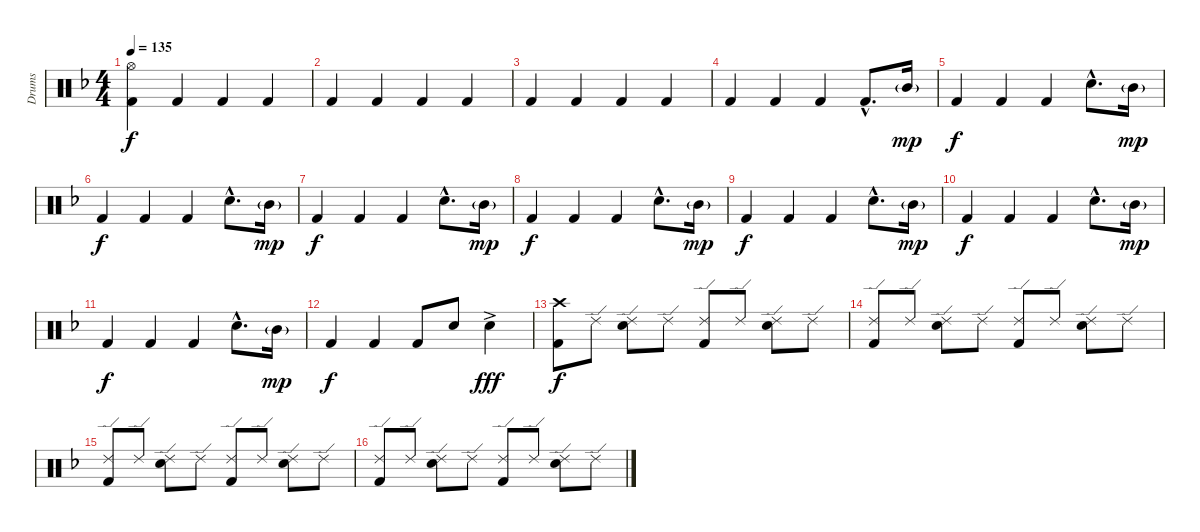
\track ("Drums" "Drums") {instrument percussion}
\staff {score}
\articulation defaults
\ts (4 4)
\tempo 135
\clef neutral
\ks f
("Hi-Hat (open)" "Kick (hit) 2").4{dy f} "Kick (hit) 2".4 "Kick (hit) 2".4 "Kick (hit) 2".4 |
"Kick (hit) 2".4 "Kick (hit) 2".4 "Kick (hit) 2".4 "Kick (hit) 2".4 |
"Kick (hit) 2".4 "Kick (hit) 2".4 "Kick (hit) 2".4 "Kick (hit) 2".4 |
"Kick (hit) 2".4 "Kick (hit) 2".4 "Kick (hit) 2".4 "Kick (hit) 2"{hac}.8{d} "Mid Tom (hit)"{g}.16{dy mp} |
"Kick (hit) 2".4{dy f} "Kick (hit) 2".4 "Kick (hit) 2".4 "Electric Snare (hit)"{hac}.8{d} "Mid Tom (hit)"{g}.16{dy mp} |
"Kick (hit) 2".4{dy f} "Kick (hit) 2".4 "Kick (hit) 2".4 "Electric Snare (hit)"{hac}.8{d} "Mid Tom (hit)"{g}.16{dy mp} |
"Kick (hit) 2".4{dy f} "Kick (hit) 2".4 "Kick (hit) 2".4 "Electric Snare (hit)"{hac}.8{d} "Mid Tom (hit)"{g}.16{dy mp} |
"Kick (hit) 2".4{dy f} "Kick (hit) 2".4 "Kick (hit) 2".4 "Electric Snare (hit)"{hac}.8{d} "Mid Tom (hit)"{g}.16{dy mp} |
"Kick (hit) 2".4{dy f} "Kick (hit) 2".4 "Kick (hit) 2".4 "Electric Snare (hit)"{hac}.8{d} "Mid Tom (hit)"{g}.16{dy mp} |
"Kick (hit) 2".4{dy f} "Kick (hit) 2".4 "Kick (hit) 2".4 "Electric Snare (hit)"{hac}.8{d} "Mid Tom (hit)"{g}.16{dy mp} |
"Kick (hit) 2".4{dy f} "Kick (hit) 2".4 "Kick (hit) 2".4 "Electric Snare (hit)"{hac}.8{d} "Mid Tom (hit)"{g}.16{dy mp} |
"Kick (hit) 2".4{dy f} "Kick (hit) 2".4 "Kick (hit) 2".8 "Electric Snare (hit)".8 "Electric Snare (hit)"{ac}.4{dy fff} |
("Crash high (hit)" "Kick (hit) 2").8{dy f} "Ride (edge) 2".8 ("Ride (edge) 2" "Electric Snare (hit)").8 "Ride (edge) 2".8 ("Ride (edge) 2" "Kick (hit) 2").8 "Ride (edge) 2".8 ("Ride (edge) 2" "Electric Snare (hit)").8 "Ride (edge) 2".8 |
("Ride (edge) 2" "Kick (hit) 2").8 "Ride (edge) 2".8 ("Ride (edge) 2" "Electric Snare (hit)").8 "Ride (edge) 2".8 ("Ride (edge) 2" "Kick (hit) 2").8 "Ride (edge) 2".8 ("Ride (edge) 2" "Electric Snare (hit)").8 "Ride (edge) 2".8 |
("Ride (edge) 2" "Kick (hit) 2").8 "Ride (edge) 2".8 ("Ride (edge) 2" "Electric Snare (hit)").8 "Ride (edge) 2".8 ("Ride (edge) 2" "Kick (hit) 2").8 "Ride (edge) 2".8 ("Ride (edge) 2" "Electric Snare (hit)").8 "Ride (edge) 2".8 |
("Ride (edge) 2" "Kick (hit) 2").8 "Ride (edge) 2".8 ("Ride (edge) 2" "Electric Snare (hit)").8 "Ride (edge) 2".8 ("Ride (edge) 2" "Kick (hit) 2").8 "Ride (edge) 2".8 ("Ride (edge) 2" "Electric Snare (hit)").8 "Ride (edge) 2".8
